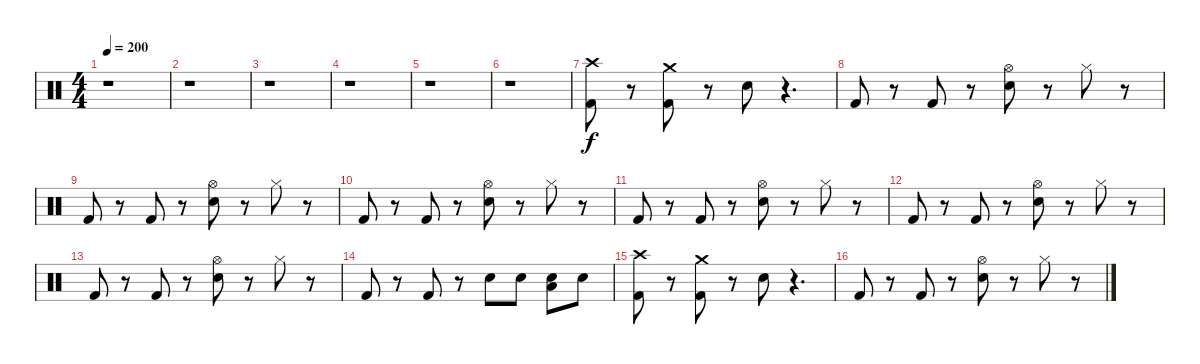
\track "" {instrument percussion}
\staff {score}
\articulation defaults
\ts (4 4)
\tempo 200
\clef neutral
\ks c
r.1{dy f} |
r.1 |
r.1 |
r.1 |
r.1 |
r.1 |
("Crash high (hit)" "Kick (hit) 2").8 r.8 ("Crash medium (hit)" "Kick (hit) 2").8 r.8 "Electric Snare (hit)".8 r.4{d} |
"Kick (hit) 2".8 r.8 "Kick (hit) 2".8 r.8 ("Hi-Hat (open)" "Electric Snare (hit)").8 r.8 "Hi-Hat (closed)".8 r.8 |
"Kick (hit) 2".8 r.8 "Kick (hit) 2".8 r.8 ("Hi-Hat (open)" "Electric Snare (hit)").8 r.8 "Hi-Hat (closed)".8 r.8 |
"Kick (hit) 2".8 r.8 "Kick (hit) 2".8 r.8 ("Hi-Hat (open)" "Electric Snare (hit)").8 r.8 "Hi-Hat (closed)".8 r.8 |
"Kick (hit) 2".8 r.8 "Kick (hit) 2".8 r.8 ("Hi-Hat (open)" "Electric Snare (hit)").8 r.8 "Hi-Hat (closed)".8 r.8 |
"Kick (hit) 2".8 r.8 "Kick (hit) 2".8 r.8 ("Hi-Hat (open)" "Electric Snare (hit)").8 r.8 "Hi-Hat (closed)".8 r.8 |
"Kick (hit) 2".8 r.8 "Kick (hit) 2".8 r.8 ("Hi-Hat (open)" "Electric Snare (hit)").8 r.8 "Hi-Hat (closed)".8 r.8 |
"Kick (hit) 2".8 r.8 "Kick (hit) 2".8 r.8 "Electric Snare (hit)".8 "Electric Snare (hit)".8 ("Snare (hit) 2" "Low Tom (hit)").8 "Electric Snare (hit)".8 |
("Crash high (hit)" "Kick (hit) 2").8 r.8 ("Crash medium (hit)" "Kick (hit) 2").8 r.8 "Electric Snare (hit)".8 r.4{d} |
"Kick (hit) 2".8 r.8 "Kick (hit) 2".8 r.8 ("Hi-Hat (open)" "Electric Snare (hit)").8 r.8 "Hi-Hat (closed)".8 r.8
